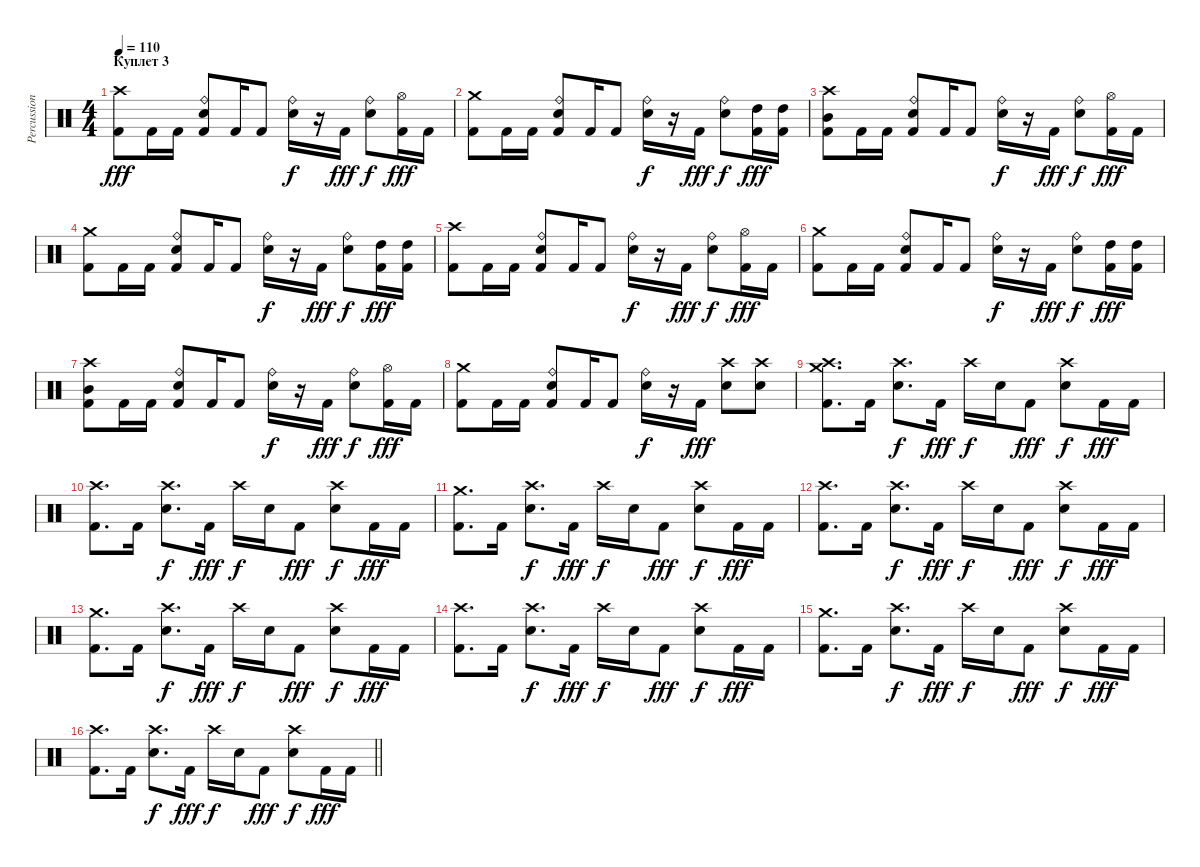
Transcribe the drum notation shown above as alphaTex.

\track ("Percussion" "Percussion") {instrument percussion}
\staff {score}
\articulation defaults
\ts (4 4)
\section ("" "Куплет 3")
\tempo 110
\clef neutral
\ks c
("Crash high (hit)" "Kick (hit) 2").8{dy fff} "Kick (hit) 2".16 "Kick (hit) 2".16 ("Ride (bell)" "Snare (hit) 2" "Kick (hit) 2").8 "Kick (hit) 2".16 "Kick (hit) 2".8 ("Ride (bell)" "Snare (hit) 2").16{dy f} r.16 "Kick (hit) 2".16{dy fff} ("Ride (bell)" "Snare (hit) 2").8{dy f} ("Hi-Hat (open)" "Kick (hit) 2").16{dy fff} "Kick (hit) 2".16 |
("Crash medium (hit)" "Kick (hit) 2").8 "Kick (hit) 2".16 "Kick (hit) 2".16 ("Ride (bell)" "Snare (hit) 2" "Kick (hit) 2").8 "Kick (hit) 2".16 "Kick (hit) 2".8 ("Ride (bell)" "Snare (hit) 2").16{dy f} r.16 "Kick (hit) 2".16{dy fff} ("Ride (bell)" "Snare (hit) 2").8{dy f} ("High Tom (hit)" "Kick (hit) 2").16{dy fff} ("High Tom (hit)" "Kick (hit) 2").16 |
("Crash high (hit)" "Mid Tom (hit)" "Kick (hit) 2").8 "Kick (hit) 2".16 "Kick (hit) 2".16 ("Ride (bell)" "Snare (hit) 2" "Kick (hit) 2").8 "Kick (hit) 2".16 "Kick (hit) 2".8 ("Ride (bell)" "Snare (hit) 2").16{dy f} r.16 "Kick (hit) 2".16{dy fff} ("Ride (bell)" "Snare (hit) 2").8{dy f} ("Hi-Hat (open)" "Kick (hit) 2").16{dy fff} "Kick (hit) 2".16 |
("Crash medium (hit)" "Kick (hit) 2").8 "Kick (hit) 2".16 "Kick (hit) 2".16 ("Ride (bell)" "Snare (hit) 2" "Kick (hit) 2").8 "Kick (hit) 2".16 "Kick (hit) 2".8 ("Ride (bell)" "Snare (hit) 2").16{dy f} r.16 "Kick (hit) 2".16{dy fff} ("Ride (bell)" "Snare (hit) 2").8{dy f} ("High Tom (hit)" "Kick (hit) 2").16{dy fff} ("High Tom (hit)" "Kick (hit) 2").16 |
("Crash high (hit)" "Kick (hit) 2").8 "Kick (hit) 2".16 "Kick (hit) 2".16 ("Ride (bell)" "Snare (hit) 2" "Kick (hit) 2").8 "Kick (hit) 2".16 "Kick (hit) 2".8 ("Ride (bell)" "Snare (hit) 2").16{dy f} r.16 "Kick (hit) 2".16{dy fff} ("Ride (bell)" "Snare (hit) 2").8{dy f} ("Hi-Hat (open)" "Kick (hit) 2").16{dy fff} "Kick (hit) 2".16 |
("Crash medium (hit)" "Kick (hit) 2").8 "Kick (hit) 2".16 "Kick (hit) 2".16 ("Ride (bell)" "Snare (hit) 2" "Kick (hit) 2").8 "Kick (hit) 2".16 "Kick (hit) 2".8 ("Ride (bell)" "Snare (hit) 2").16{dy f} r.16 "Kick (hit) 2".16{dy fff} ("Ride (bell)" "Snare (hit) 2").8{dy f} ("High Tom (hit)" "Kick (hit) 2").16{dy fff} ("High Tom (hit)" "Kick (hit) 2").16 |
("Crash high (hit)" "Mid Tom (hit)" "Kick (hit) 2").8 "Kick (hit) 2".16 "Kick (hit) 2".16 ("Ride (bell)" "Snare (hit) 2" "Kick (hit) 2").8 "Kick (hit) 2".16 "Kick (hit) 2".8 ("Ride (bell)" "Snare (hit) 2").16{dy f} r.16 "Kick (hit) 2".16{dy fff} ("Ride (bell)" "Snare (hit) 2").8{dy f} ("Hi-Hat (open)" "Kick (hit) 2").16{dy fff} "Kick (hit) 2".16 |
("Crash medium (hit)" "Kick (hit) 2").8 "Kick (hit) 2".16 "Kick (hit) 2".16 ("Ride (bell)" "Snare (hit) 2" "Kick (hit) 2").8 "Kick (hit) 2".16 "Kick (hit) 2".8 ("Ride (bell)" "Snare (hit) 2").16{dy f} r.16 "Kick (hit) 2".16{dy fff} ("Crash high (hit)" "Snare (hit) 2").8 ("Crash high (hit)" "Snare (hit) 2").8 |
("Crash medium (hit)" "Crash high (hit)" "Kick (hit) 2").8{d} "Kick (hit) 2".16 ("Crash high (hit)" "Snare (hit) 2").8{d dy f} "Kick (hit) 2".16{dy fff} "Crash high (hit)".16{dy f} "Snare (hit) 2".16 "Kick (hit) 2".8{dy fff} ("Crash high (hit)" "Snare (hit) 2").8{dy f} "Kick (hit) 2".16{dy fff} "Kick (hit) 2".16 |
("Crash high (hit)" "Kick (hit) 2").8{d} "Kick (hit) 2".16 ("Crash high (hit)" "Snare (hit) 2").8{d dy f} "Kick (hit) 2".16{dy fff} "Crash high (hit)".16{dy f} "Snare (hit) 2".16 "Kick (hit) 2".8{dy fff} ("Crash high (hit)" "Snare (hit) 2").8{dy f} "Kick (hit) 2".16{dy fff} "Kick (hit) 2".16 |
("Crash medium (hit)" "Kick (hit) 2").8{d} "Kick (hit) 2".16 ("Crash high (hit)" "Snare (hit) 2").8{d dy f} "Kick (hit) 2".16{dy fff} "Crash high (hit)".16{dy f} "Snare (hit) 2".16 "Kick (hit) 2".8{dy fff} ("Crash high (hit)" "Snare (hit) 2").8{dy f} "Kick (hit) 2".16{dy fff} "Kick (hit) 2".16 |
("Crash high (hit)" "Kick (hit) 2").8{d} "Kick (hit) 2".16 ("Crash high (hit)" "Snare (hit) 2").8{d dy f} "Kick (hit) 2".16{dy fff} "Crash high (hit)".16{dy f} "Snare (hit) 2".16 "Kick (hit) 2".8{dy fff} ("Crash high (hit)" "Snare (hit) 2").8{dy f} "Kick (hit) 2".16{dy fff} "Kick (hit) 2".16 |
("Crash medium (hit)" "Kick (hit) 2").8{d} "Kick (hit) 2".16 ("Crash high (hit)" "Snare (hit) 2").8{d dy f} "Kick (hit) 2".16{dy fff} "Crash high (hit)".16{dy f} "Snare (hit) 2".16 "Kick (hit) 2".8{dy fff} ("Crash high (hit)" "Snare (hit) 2").8{dy f} "Kick (hit) 2".16{dy fff} "Kick (hit) 2".16 |
("Crash high (hit)" "Kick (hit) 2").8{d} "Kick (hit) 2".16 ("Crash high (hit)" "Snare (hit) 2").8{d dy f} "Kick (hit) 2".16{dy fff} "Crash high (hit)".16{dy f} "Snare (hit) 2".16 "Kick (hit) 2".8{dy fff} ("Crash high (hit)" "Snare (hit) 2").8{dy f} "Kick (hit) 2".16{dy fff} "Kick (hit) 2".16 |
("Crash medium (hit)" "Kick (hit) 2").8{d} "Kick (hit) 2".16 ("Crash high (hit)" "Snare (hit) 2").8{d dy f} "Kick (hit) 2".16{dy fff} "Crash high (hit)".16{dy f} "Snare (hit) 2".16 "Kick (hit) 2".8{dy fff} ("Crash high (hit)" "Snare (hit) 2").8{dy f} "Kick (hit) 2".16{dy fff} "Kick (hit) 2".16 |
\barLineRight lightlight
("Crash high (hit)" "Kick (hit) 2").8{d} "Kick (hit) 2".16 ("Crash high (hit)" "Snare (hit) 2").8{d dy f} "Kick (hit) 2".16{dy fff} "Crash high (hit)".16{dy f} "Snare (hit) 2".16 "Kick (hit) 2".8{dy fff} ("Crash high (hit)" "Snare (hit) 2").8{dy f} "Kick (hit) 2".16{dy fff} "Kick (hit) 2".16
